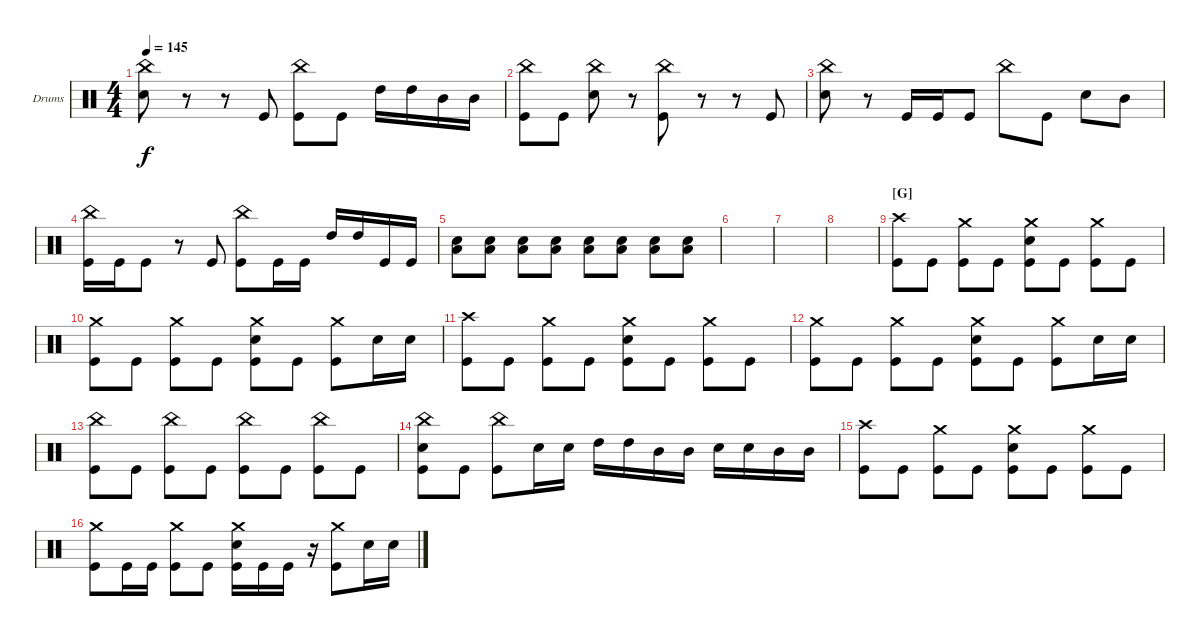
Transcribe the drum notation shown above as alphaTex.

\defaultSystemsLayout 4
\bracketExtendMode groupsimilarinstruments
\firstSystemTrackNameOrientation horizontal
\otherSystemsTrackNameOrientation horizontal
\track ("Drumkit" "Drums") {instrument percussion}
\staff {score}
\articulation defaults
\ts (4 4)
\tempo 145
\clef neutral
\ks c
("China (hit)" "Snare (hit) 2").8{dy f} r.8 r.8 "Kick (hit)".8 ("China (hit)" "Kick (hit)").8 "Kick (hit)".8 "High Tom (hit)".16 "High Tom (hit)".16 "Mid Tom (hit)".16 "Mid Tom (hit)".16 |
("Kick (hit)" "China (hit)").8 "Kick (hit)".8 ("Snare (hit) 2" "China (hit)").8 r.8 ("Kick (hit)" "China (hit)").8 r.8 r.8 "Kick (hit)".8 |
("Snare (hit) 2" "China (hit)").8 r.8 "Kick (hit)".16 "Kick (hit)".16 "Kick (hit)".8 "China (hit)".8 "Kick (hit)".8 "Snare (hit) 2".8 "Mid Tom (hit)".8 |
("Kick (hit)" "China (hit)").16 "Kick (hit)".16 "Kick (hit)".8 r.8 "Kick (hit)".8 ("Kick (hit)" "China (hit)").8 "Kick (hit)".16 "Kick (hit)".16 "High Tom (hit)".16 "High Tom (hit)".16 "Kick (hit)".16 "Kick (hit)".16 |
("Snare (hit) 2" "Low Tom (hit)").8 ("Snare (hit) 2" "Low Tom (hit)").8 ("Snare (hit) 2" "Low Tom (hit)").8 ("Snare (hit) 2" "Low Tom (hit)").8 ("Snare (hit) 2" "Low Tom (hit)").8 ("Snare (hit) 2" "Low Tom (hit)").8 ("Snare (hit) 2" "Low Tom (hit)").8 ("Snare (hit) 2" "Low Tom (hit)").8 |
|
|
|
\section ("G" "")
("Kick (hit)" "Crash high (hit)").8 "Kick (hit)".8 ("Kick (hit)" "Crash medium (hit)").8 "Kick (hit)".8 ("Kick (hit)" "Crash medium (hit)" "Snare (hit) 2").8 "Kick (hit)".8 ("Kick (hit)" "Crash medium (hit)").8 "Kick (hit)".8 |
("Kick (hit)" "Crash medium (hit)").8 "Kick (hit)".8 ("Kick (hit)" "Crash medium (hit)").8 "Kick (hit)".8 ("Kick (hit)" "Crash medium (hit)" "Snare (hit) 2").8 "Kick (hit)".8 ("Kick (hit)" "Crash medium (hit)").8 "Snare (hit) 2".16 "Snare (hit) 2".16 |
("Kick (hit)" "Crash high (hit)").8 "Kick (hit)".8 ("Kick (hit)" "Crash medium (hit)").8 "Kick (hit)".8 ("Kick (hit)" "Crash medium (hit)" "Snare (hit) 2").8 "Kick (hit)".8 ("Kick (hit)" "Crash medium (hit)").8 "Kick (hit)".8 |
("Kick (hit)" "Crash medium (hit)").8 "Kick (hit)".8 ("Kick (hit)" "Crash medium (hit)").8 "Kick (hit)".8 ("Kick (hit)" "Crash medium (hit)" "Snare (hit) 2").8 "Kick (hit)".8 ("Kick (hit)" "Crash medium (hit)").8 "Snare (hit) 2".16 "Snare (hit) 2".16 |
("Kick (hit)" "China (hit)").8 "Kick (hit)".8 ("Kick (hit)" "China (hit)").8 "Kick (hit)".8 ("Kick (hit)" "China (hit)").8 "Kick (hit)".8 ("Kick (hit)" "China (hit)").8 "Kick (hit)".8 |
("Snare (hit) 2" "Kick (hit)" "China (hit)").8 "Kick (hit)".8 ("Kick (hit)" "China (hit)").8 "Snare (hit) 2".16 "Snare (hit) 2".16 "High Tom (hit)".16 "High Tom (hit)".16 "Mid Tom (hit)".16 "Mid Tom (hit)".16 "Snare (hit) 2".16 "Snare (hit) 2".16 "Mid Tom (hit)".16 "Mid Tom (hit)".16 |
("Kick (hit)" "Crash high (hit)").8 "Kick (hit)".8 ("Kick (hit)" "Crash medium (hit)").8 "Kick (hit)".8 ("Kick (hit)" "Crash medium (hit)" "Snare (hit) 2").8 "Kick (hit)".8 ("Kick (hit)" "Crash medium (hit)").8 "Kick (hit)".8 |
("Kick (hit)" "Crash medium (hit)").8 "Kick (hit)".16 "Kick (hit)".16 ("Kick (hit)" "Crash medium (hit)").8 "Kick (hit)".8 ("Kick (hit)" "Crash medium (hit)" "Snare (hit) 2").16 "Kick (hit)".16 "Kick (hit)".16 r.16 ("Kick (hit)" "Crash medium (hit)").8 "Snare (hit) 2".16 "Snare (hit) 2".16
